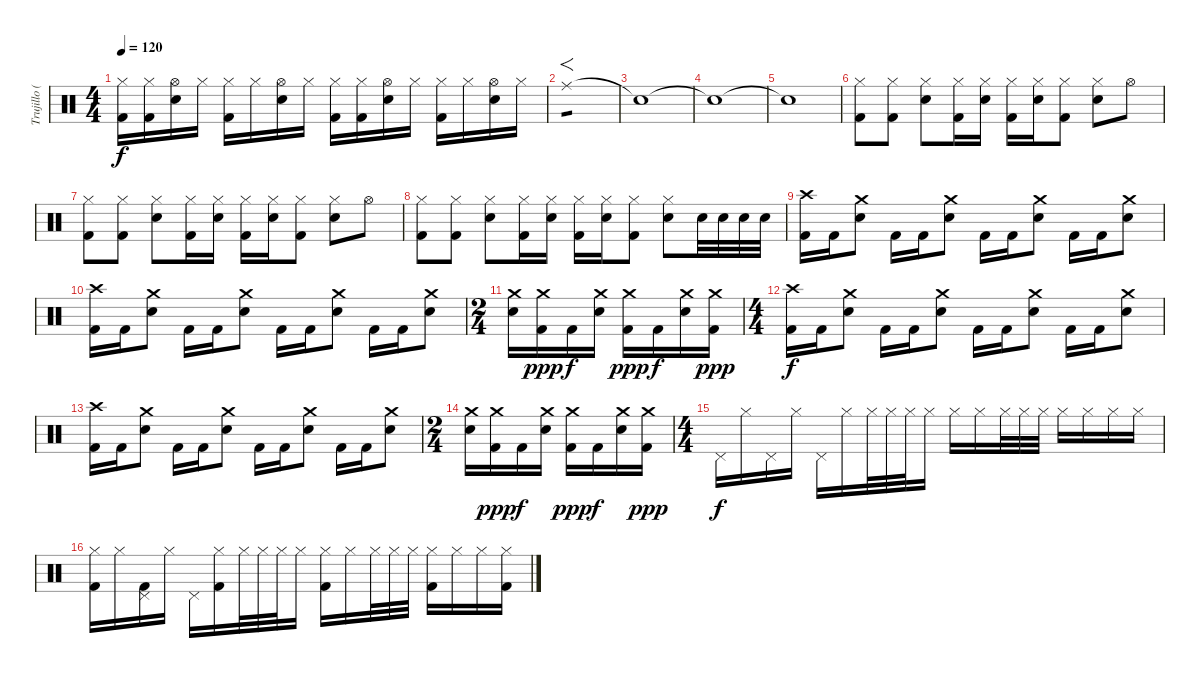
\track ("Trujillo (Percussion)" "Trujillo (") {instrument percussion}
\staff {score}
\articulation defaults
\ts (4 4)
\tempo 120
\clef neutral
\ks c
("Hi-Hat (closed)" "Kick (hit) 2").16{dy f} ("Hi-Hat (closed)" "Kick (hit) 2").16 ("Hi-Hat (open)" "Electric Snare (hit)").16 "Hi-Hat (closed)".16 ("Hi-Hat (closed)" "Kick (hit) 2").16 "Hi-Hat (closed)".16 ("Hi-Hat (open)" "Electric Snare (hit)").16 "Hi-Hat (closed)".16 ("Hi-Hat (closed)" "Kick (hit) 2").16 ("Hi-Hat (closed)" "Kick (hit) 2").16 ("Hi-Hat (open)" "Electric Snare (hit)").16 "Hi-Hat (closed)".16 ("Hi-Hat (closed)" "Kick (hit) 2").16 "Hi-Hat (closed)".16 ("Hi-Hat (open)" "Electric Snare (hit)").16 "Hi-Hat (closed)".16 |
"Ride (middle)".1{f tp 1} |
"Snare (hit)"{t}.1 |
"Snare (hit)"{t}.1 |
"Snare (hit)"{t}.1 |
("Hi-Hat (closed)" "Kick (hit) 2").8 ("Hi-Hat (closed)" "Kick (hit) 2").8 ("Hi-Hat (closed)" "Electric Snare (hit)").8 ("Hi-Hat (closed)" "Kick (hit) 2").16 ("Hi-Hat (closed)" "Electric Snare (hit)").16 ("Hi-Hat (closed)" "Kick (hit) 2").16 ("Hi-Hat (closed)" "Electric Snare (hit)").16 ("Hi-Hat (closed)" "Kick (hit) 2").8 ("Hi-Hat (closed)" "Electric Snare (hit)").8 "Hi-Hat (open)".8 |
("Hi-Hat (closed)" "Kick (hit) 2").8 ("Hi-Hat (closed)" "Kick (hit) 2").8 ("Hi-Hat (closed)" "Electric Snare (hit)").8 ("Hi-Hat (closed)" "Kick (hit) 2").16 ("Hi-Hat (closed)" "Electric Snare (hit)").16 ("Hi-Hat (closed)" "Kick (hit) 2").16 ("Hi-Hat (closed)" "Electric Snare (hit)").16 ("Hi-Hat (closed)" "Kick (hit) 2").8 ("Hi-Hat (closed)" "Electric Snare (hit)").8 "Hi-Hat (open)".8 |
("Hi-Hat (closed)" "Kick (hit) 2").8 ("Hi-Hat (closed)" "Kick (hit) 2").8 ("Hi-Hat (closed)" "Electric Snare (hit)").8 ("Hi-Hat (closed)" "Kick (hit) 2").16 ("Hi-Hat (closed)" "Electric Snare (hit)").16 ("Hi-Hat (closed)" "Kick (hit) 2").16 ("Hi-Hat (closed)" "Electric Snare (hit)").16 ("Hi-Hat (closed)" "Kick (hit) 2").8 ("Hi-Hat (closed)" "Electric Snare (hit)").8 "Electric Snare (hit)".32 "Electric Snare (hit)".32 "Electric Snare (hit)".32 "Electric Snare (hit)".32 |
("Crash high (hit)" "Kick (hit) 2").16 "Kick (hit) 2".16 ("Crash medium (hit)" "Electric Snare (hit)").8 "Kick (hit) 2".16 "Kick (hit) 2".16 ("Crash medium (hit)" "Electric Snare (hit)").8 "Kick (hit) 2".16 "Kick (hit) 2".16 ("Crash medium (hit)" "Electric Snare (hit)").8 "Kick (hit) 2".16 "Kick (hit) 2".16 ("Crash medium (hit)" "Electric Snare (hit)").8 |
("Crash high (hit)" "Kick (hit) 2").16 "Kick (hit) 2".16 ("Crash medium (hit)" "Electric Snare (hit)").8 "Kick (hit) 2".16 "Kick (hit) 2".16 ("Crash medium (hit)" "Electric Snare (hit)").8 "Kick (hit) 2".16 "Kick (hit) 2".16 ("Crash medium (hit)" "Electric Snare (hit)").8 "Kick (hit) 2".16 "Kick (hit) 2".16 ("Crash medium (hit)" "Electric Snare (hit)").8 |
\ts (2 4)
("Crash medium (hit)" "Electric Snare (hit)").16 ("Crash medium (hit)" "Kick (hit) 2").16{dy ppp} "Kick (hit) 2".16{dy f} ("Crash medium (hit)" "Electric Snare (hit)").16 ("Crash medium (hit)" "Kick (hit) 2").16{dy ppp} "Kick (hit) 2".16{dy f} ("Crash medium (hit)" "Electric Snare (hit)").16 ("Crash medium (hit)" "Kick (hit) 2").16{dy ppp} |
\ts (4 4)
("Crash high (hit)" "Kick (hit) 2").16{dy f} "Kick (hit) 2".16 ("Crash medium (hit)" "Electric Snare (hit)").8 "Kick (hit) 2".16 "Kick (hit) 2".16 ("Crash medium (hit)" "Electric Snare (hit)").8 "Kick (hit) 2".16 "Kick (hit) 2".16 ("Crash medium (hit)" "Electric Snare (hit)").8 "Kick (hit) 2".16 "Kick (hit) 2".16 ("Crash medium (hit)" "Electric Snare (hit)").8 |
("Crash high (hit)" "Kick (hit) 2").16 "Kick (hit) 2".16 ("Crash medium (hit)" "Electric Snare (hit)").8 "Kick (hit) 2".16 "Kick (hit) 2".16 ("Crash medium (hit)" "Electric Snare (hit)").8 "Kick (hit) 2".16 "Kick (hit) 2".16 ("Crash medium (hit)" "Electric Snare (hit)").8 "Kick (hit) 2".16 "Kick (hit) 2".16 ("Crash medium (hit)" "Electric Snare (hit)").8 |
\ts (2 4)
("Crash medium (hit)" "Electric Snare (hit)").16 ("Crash medium (hit)" "Kick (hit) 2").16{dy ppp} "Kick (hit) 2".16{dy f} ("Crash medium (hit)" "Electric Snare (hit)").16 ("Crash medium (hit)" "Kick (hit) 2").16{dy ppp} "Kick (hit) 2".16{dy f} ("Crash medium (hit)" "Electric Snare (hit)").16 ("Crash medium (hit)" "Kick (hit) 2").16{dy ppp} |
\ts (4 4)
"Pedal Hi-Hat (hit)".16{dy f} "Hi-Hat (closed)".16 "Pedal Hi-Hat (hit)".16 "Hi-Hat (closed)".16 "Pedal Hi-Hat (hit)".16 "Hi-Hat (closed)".16 "Hi-Hat (closed)".32 "Hi-Hat (closed)".32 "Hi-Hat (closed)".32 "Hi-Hat (closed)".16 "Hi-Hat (closed)".16 "Hi-Hat (closed)".16 "Hi-Hat (closed)".32 "Hi-Hat (closed)".32 "Hi-Hat (closed)".32 "Hi-Hat (closed)".16 "Hi-Hat (closed)".16 "Hi-Hat (closed)".16 "Hi-Hat (closed)".16 |
("Hi-Hat (closed)" "Kick (hit) 2").16 "Hi-Hat (closed)".16 ("Pedal Hi-Hat (hit)" "Kick (hit) 2").16 "Hi-Hat (closed)".16 "Pedal Hi-Hat (hit)".16 ("Hi-Hat (closed)" "Kick (hit) 2").16 "Hi-Hat (closed)".32 "Hi-Hat (closed)".32 "Hi-Hat (closed)".32 "Hi-Hat (closed)".16 ("Hi-Hat (closed)" "Kick (hit) 2").16 "Hi-Hat (closed)".16 "Hi-Hat (closed)".32 "Hi-Hat (closed)".32 "Hi-Hat (closed)".32 ("Hi-Hat (closed)" "Kick (hit) 2").16 "Hi-Hat (closed)".16 "Hi-Hat (closed)".16 ("Hi-Hat (closed)" "Kick (hit) 2").16
